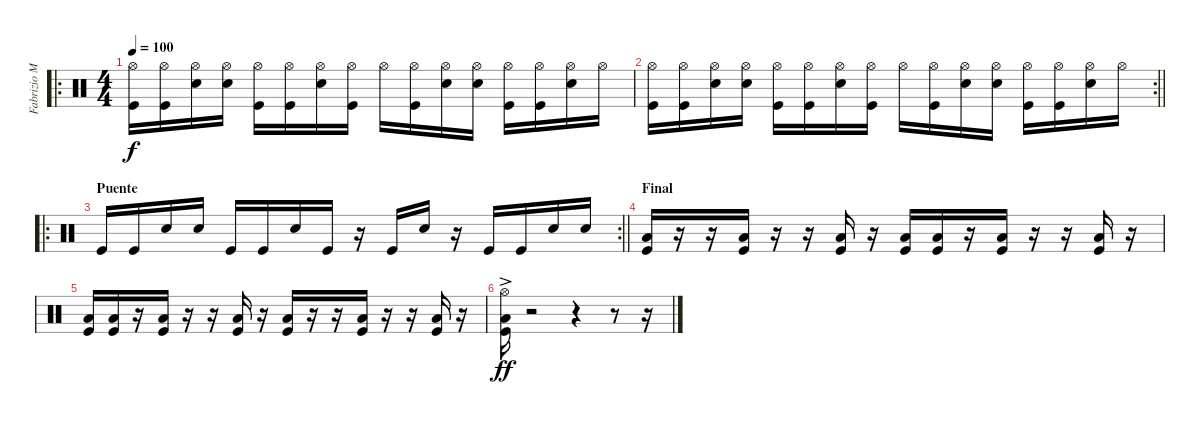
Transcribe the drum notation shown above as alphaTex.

\track ("Fabrizio Moretti" "Fabrizio M") {instrument percussion}
\staff {score}
\articulation defaults
\ro
\ts (4 4)
\tempo 100
\clef neutral
\ks c
("Hi-Hat (open)" "Kick (hit)").16{dy f} ("Hi-Hat (open)" "Kick (hit)").16 ("Hi-Hat (open)" "Snare (hit) 2").16 ("Hi-Hat (open)" "Snare (hit) 2").16 ("Hi-Hat (open)" "Kick (hit)").16 ("Hi-Hat (open)" "Kick (hit)").16 ("Hi-Hat (open)" "Snare (hit) 2").16 ("Hi-Hat (open)" "Kick (hit)").16 "Hi-Hat (open)".16 ("Hi-Hat (open)" "Kick (hit)").16 ("Hi-Hat (open)" "Snare (hit) 2").16 ("Hi-Hat (open)" "Snare (hit) 2").16 ("Hi-Hat (open)" "Kick (hit)").16 ("Hi-Hat (open)" "Kick (hit)").16 ("Hi-Hat (open)" "Snare (hit) 2").16 "Hi-Hat (open)".16 |
\rc 2
\barLineRight lightlight
("Hi-Hat (open)" "Kick (hit)").16 ("Hi-Hat (open)" "Kick (hit)").16 ("Hi-Hat (open)" "Snare (hit) 2").16 ("Hi-Hat (open)" "Snare (hit) 2").16 ("Hi-Hat (open)" "Kick (hit)").16 ("Hi-Hat (open)" "Kick (hit)").16 ("Hi-Hat (open)" "Snare (hit) 2").16 ("Hi-Hat (open)" "Kick (hit)").16 "Hi-Hat (open)".16 ("Hi-Hat (open)" "Kick (hit)").16 ("Hi-Hat (open)" "Snare (hit) 2").16 ("Hi-Hat (open)" "Snare (hit) 2").16 ("Hi-Hat (open)" "Kick (hit)").16 ("Hi-Hat (open)" "Kick (hit)").16 ("Hi-Hat (open)" "Snare (hit) 2").16 "Hi-Hat (open)".16 |
\ro
\rc 2
\section ("" "Puente")
\barLineRight lightlight "Kick (hit)".16 "Kick (hit)".16 "Snare (hit) 2".16 "Snare (hit) 2".16 "Kick (hit)".16 "Kick (hit)".16 "Snare (hit) 2".16 "Kick (hit)".16
r.16 "Kick (hit)".16 "Snare (hit) 2".16 r.16 "Kick (hit)".16 "Kick (hit)".16 "Snare (hit) 2".16 "Snare (hit) 2".16 |
\section ("" "Final")
("Kick (hit)" "Low Floor Tom (hit)").16 r.16 r.16 ("Kick (hit)" "Low Floor Tom (hit)").16 r.16 r.16 ("Kick (hit)" "Low Floor Tom (hit)").16 r.16 ("Kick (hit)" "Low Floor Tom (hit)").16 ("Kick (hit)" "Low Floor Tom (hit)").16 r.16 ("Kick (hit)" "Low Floor Tom (hit)").16 r.16 r.16 ("Kick (hit)" "Low Floor Tom (hit)").16 r.16 |
("Kick (hit)" "Low Floor Tom (hit)").16 ("Kick (hit)" "Low Floor Tom (hit)").16 r.16 ("Kick (hit)" "Low Floor Tom (hit)").16 r.16 r.16 ("Kick (hit)" "Low Floor Tom (hit)").16 r.16 ("Kick (hit)" "Low Floor Tom (hit)").16 r.16 r.16 ("Kick (hit)" "Low Floor Tom (hit)").16 r.16 r.16 ("Kick (hit)" "Low Floor Tom (hit)").16 r.16 |
("Hi-Hat (open)"{ac} "Kick (hit)"{ac} "Low Floor Tom (hit)"{ac}).16{dy ff} r.2 r.4 r.8 r.16
